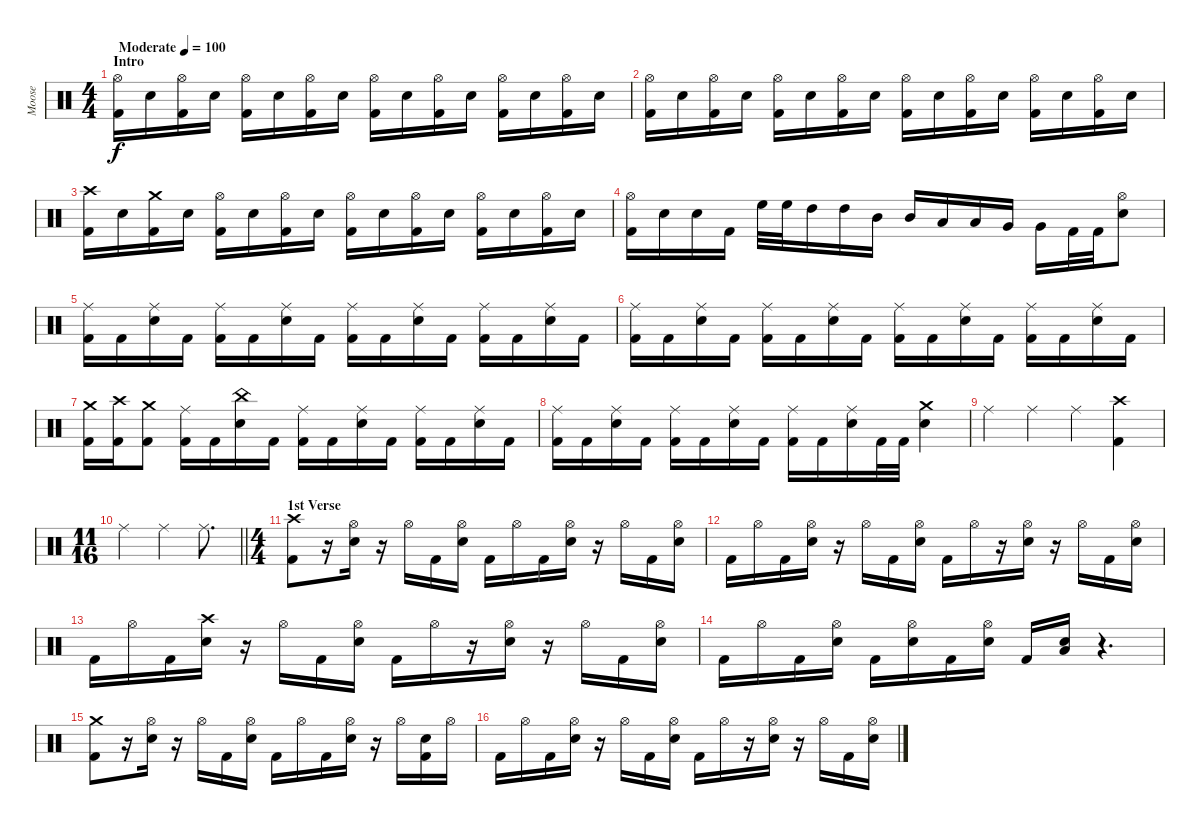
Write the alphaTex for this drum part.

\track ("Moose" "Moose") {instrument percussion}
\staff {score}
\articulation defaults
\ts (4 4)
\section ("" "Intro")
\tempo (100 "Moderate")
\clef neutral
\ks c
("Hi-Hat (open)" "Kick (hit) 2").16{dy f} "Electric Snare (hit)".16 ("Hi-Hat (open)" "Kick (hit) 2").16 "Electric Snare (hit)".16 ("Hi-Hat (open)" "Kick (hit) 2").16 "Electric Snare (hit)".16 ("Hi-Hat (open)" "Kick (hit) 2").16 "Electric Snare (hit)".16 ("Hi-Hat (open)" "Kick (hit) 2").16 "Electric Snare (hit)".16 ("Hi-Hat (open)" "Kick (hit) 2").16 "Electric Snare (hit)".16 ("Hi-Hat (open)" "Kick (hit) 2").16 "Electric Snare (hit)".16 ("Hi-Hat (open)" "Kick (hit) 2").16 "Electric Snare (hit)".16 |
("Hi-Hat (open)" "Kick (hit) 2").16 "Electric Snare (hit)".16 ("Hi-Hat (open)" "Kick (hit) 2").16 "Electric Snare (hit)".16 ("Hi-Hat (open)" "Kick (hit) 2").16 "Electric Snare (hit)".16 ("Hi-Hat (open)" "Kick (hit) 2").16 "Electric Snare (hit)".16 ("Hi-Hat (open)" "Kick (hit) 2").16 "Electric Snare (hit)".16 ("Hi-Hat (open)" "Kick (hit) 2").16 "Electric Snare (hit)".16 ("Hi-Hat (open)" "Kick (hit) 2").16 "Electric Snare (hit)".16 ("Hi-Hat (open)" "Kick (hit) 2").16 "Electric Snare (hit)".16 |
("Crash high (hit)" "Kick (hit) 2").16 "Electric Snare (hit)".16 ("Crash medium (hit)" "Kick (hit) 2").16 "Electric Snare (hit)".16 ("Hi-Hat (open)" "Kick (hit) 2").16 "Electric Snare (hit)".16 ("Hi-Hat (open)" "Kick (hit) 2").16 "Electric Snare (hit)".16 ("Hi-Hat (open)" "Kick (hit) 2").16 "Electric Snare (hit)".16 ("Hi-Hat (open)" "Kick (hit) 2").16 "Electric Snare (hit)".16 ("Hi-Hat (open)" "Kick (hit) 2").16 "Electric Snare (hit)".16 ("Hi-Hat (open)" "Kick (hit) 2").16 "Electric Snare (hit)".16 |
("Hi-Hat (open)" "Kick (hit) 2").16 "Electric Snare (hit)".16 "Electric Snare (hit)".16 "Kick (hit) 2".16 "High Floor Tom (hit)".32 "High Floor Tom (hit)".32 "High Tom (hit)".16 "High Tom (hit)".16 "Mid Tom (hit)".16 "Mid Tom (hit)".16 "Low Tom (hit)".16 "Low Tom (hit)".16 "Very Low Tom (hit)".16 "Very Low Tom (hit)".16 "Kick (hit) 2".32 "Kick (hit) 2".32 ("Hi-Hat (open)" "Electric Snare (hit)").8 |
("Ride (middle)" "Kick (hit) 2").16 "Kick (hit) 2".16 ("Ride (middle)" "Electric Snare (hit)").16 "Kick (hit) 2".16 ("Ride (middle)" "Kick (hit) 2").16 "Kick (hit) 2".16 ("Ride (middle)" "Electric Snare (hit)").16 "Kick (hit) 2".16 ("Ride (middle)" "Kick (hit) 2").16 "Kick (hit) 2".16 ("Ride (middle)" "Electric Snare (hit)").16 "Kick (hit) 2".16 ("Ride (middle)" "Kick (hit) 2").16 "Kick (hit) 2".16 ("Ride (middle)" "Electric Snare (hit)").16 "Kick (hit) 2".16 |
("Ride (middle)" "Kick (hit) 2").16 "Kick (hit) 2".16 ("Ride (middle)" "Electric Snare (hit)").16 "Kick (hit) 2".16 ("Ride (middle)" "Kick (hit) 2").16 "Kick (hit) 2".16 ("Ride (middle)" "Electric Snare (hit)").16 "Kick (hit) 2".16 ("Ride (middle)" "Kick (hit) 2").16 "Kick (hit) 2".16 ("Ride (middle)" "Electric Snare (hit)").16 "Kick (hit) 2".16 ("Ride (middle)" "Kick (hit) 2").16 "Kick (hit) 2".16 ("Ride (middle)" "Electric Snare (hit)").16 "Kick (hit) 2".16 |
("Crash medium (hit)" "Kick (hit) 2").16 ("Crash high (hit)" "Kick (hit) 2").16 ("Crash medium (hit)" "Kick (hit) 2").8 ("Ride (middle)" "Kick (hit) 2").16 "Kick (hit) 2".16 ("China (hit)" "Electric Snare (hit)").16 "Kick (hit) 2".16 ("Ride (middle)" "Kick (hit) 2").16 "Kick (hit) 2".16 ("Ride (middle)" "Electric Snare (hit)").16 "Kick (hit) 2".16 ("Ride (middle)" "Kick (hit) 2").16 "Kick (hit) 2".16 ("Ride (middle)" "Electric Snare (hit)").16 "Kick (hit) 2".16 |
("Ride (middle)" "Kick (hit) 2").16 "Kick (hit) 2".16 ("Ride (middle)" "Electric Snare (hit)").16 "Kick (hit) 2".16 ("Ride (middle)" "Kick (hit) 2").16 "Kick (hit) 2".16 ("Ride (middle)" "Electric Snare (hit)").16 "Kick (hit) 2".16 ("Ride (middle)" "Kick (hit) 2").16 "Kick (hit) 2".16 ("Ride (middle)" "Electric Snare (hit)").16 "Kick (hit) 2".32 "Kick (hit) 2".32 ("Crash medium (hit)" "Electric Snare (hit)").4 |
"Ride (middle)".4 "Ride (middle)".4 "Ride (middle)".4 ("Crash high (hit)" "Kick (hit) 2").4 |
\ts (11 16)
\barLineRight lightlight "Ride (middle)".4 "Ride (middle)".4 "Ride (middle)".8{d}
|
\ts (4 4)
\section ("" "1st Verse")
("Crash high (hit)" "Kick (hit) 2").8 r.16 ("Hi-Hat (open)" "Electric Snare (hit)").16 r.16 "Hi-Hat (open)".16 "Kick (hit) 2".16 ("Hi-Hat (open)" "Electric Snare (hit)").16 "Kick (hit) 2".16 "Hi-Hat (open)".16 "Kick (hit) 2".16 ("Hi-Hat (open)" "Electric Snare (hit)").16 r.16 "Hi-Hat (open)".16 "Kick (hit) 2".16 ("Hi-Hat (open)" "Electric Snare (hit)").16 |
"Kick (hit) 2".16 "Hi-Hat (open)".16 "Kick (hit) 2".16 ("Hi-Hat (open)" "Electric Snare (hit)").16 r.16 "Hi-Hat (open)".16 "Kick (hit) 2".16 ("Hi-Hat (open)" "Electric Snare (hit)").16 "Kick (hit) 2".16 "Hi-Hat (open)".16 r.16 ("Hi-Hat (open)" "Electric Snare (hit)").16 r.16 "Hi-Hat (open)".16 "Kick (hit) 2".16 ("Hi-Hat (open)" "Electric Snare (hit)").16 |
"Kick (hit) 2".16 "Hi-Hat (open)".16 "Kick (hit) 2".16 ("Crash high (hit)" "Electric Snare (hit)").16 r.16 "Hi-Hat (open)".16 "Kick (hit) 2".16 ("Hi-Hat (open)" "Electric Snare (hit)").16 "Kick (hit) 2".16 "Hi-Hat (open)".16 r.16 ("Hi-Hat (open)" "Electric Snare (hit)").16 r.16 "Hi-Hat (open)".16 "Kick (hit) 2".16 ("Hi-Hat (open)" "Electric Snare (hit)").16 |
"Kick (hit) 2".16 "Hi-Hat (open)".16 "Kick (hit) 2".16 ("Hi-Hat (open)" "Electric Snare (hit)").16 "Kick (hit) 2".16 ("Hi-Hat (open)" "Electric Snare (hit)").16 "Kick (hit) 2".16 ("Hi-Hat (open)" "Electric Snare (hit)").16 "Kick (hit) 2".16 ("Low Tom (hit)" "Electric Snare (hit)").16 r.4{d} |
("Crash medium (hit)" "Kick (hit) 2").8 r.16 ("Hi-Hat (open)" "Electric Snare (hit)").16 r.16 "Hi-Hat (open)".16 "Kick (hit) 2".16 ("Hi-Hat (open)" "Electric Snare (hit)").16 "Kick (hit) 2".16 "Hi-Hat (open)".16 "Kick (hit) 2".16 ("Hi-Hat (open)" "Electric Snare (hit)").16 r.16 "Hi-Hat (open)".16 ("Electric Snare (hit)" "Kick (hit) 2").16 "Hi-Hat (open)".16 |
"Kick (hit) 2".16 "Hi-Hat (open)".16 "Kick (hit) 2".16 ("Hi-Hat (open)" "Electric Snare (hit)").16 r.16 "Hi-Hat (open)".16 "Kick (hit) 2".16 ("Hi-Hat (open)" "Electric Snare (hit)").16 "Kick (hit) 2".16 "Hi-Hat (open)".16 r.16 ("Hi-Hat (open)" "Electric Snare (hit)").16 r.16 "Hi-Hat (open)".16 "Kick (hit) 2".16 ("Hi-Hat (open)" "Electric Snare (hit)").16
